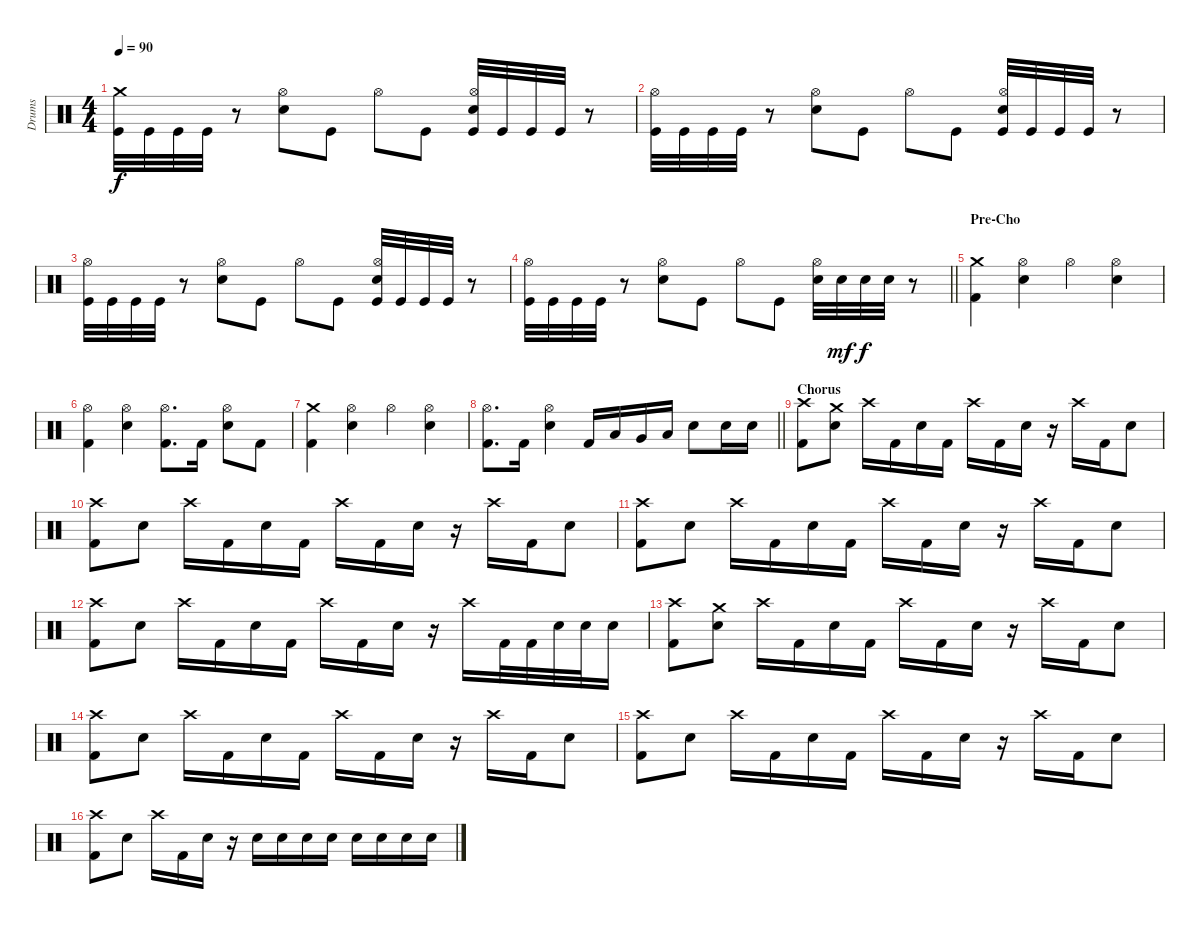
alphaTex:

\track ("Drums" "Drums") {instrument percussion}
\staff {score}
\articulation defaults
\ts (4 4)
\tempo 90
\clef neutral
\ks c
("Crash medium (hit)" "Kick (hit)").32{dy f} "Kick (hit)".32 "Kick (hit)".32 "Kick (hit)".32 r.8 ("Hi-Hat (open)" "Electric Snare (hit)").8 "Kick (hit)".8 "Hi-Hat (open)".8 "Kick (hit)".8 ("Hi-Hat (open)" "Electric Snare (hit)" "Kick (hit)").32 "Kick (hit)".32 "Kick (hit)".32 "Kick (hit)".32 r.8 |
("Hi-Hat (open)" "Kick (hit)").32 "Kick (hit)".32 "Kick (hit)".32 "Kick (hit)".32 r.8 ("Hi-Hat (open)" "Electric Snare (hit)").8 "Kick (hit)".8 "Hi-Hat (open)".8 "Kick (hit)".8 ("Hi-Hat (open)" "Electric Snare (hit)" "Kick (hit)").32 "Kick (hit)".32 "Kick (hit)".32 "Kick (hit)".32 r.8 |
("Hi-Hat (open)" "Kick (hit)").32 "Kick (hit)".32 "Kick (hit)".32 "Kick (hit)".32 r.8 ("Hi-Hat (open)" "Electric Snare (hit)").8 "Kick (hit)".8 "Hi-Hat (open)".8 "Kick (hit)".8 ("Hi-Hat (open)" "Electric Snare (hit)" "Kick (hit)").32 "Kick (hit)".32 "Kick (hit)".32 "Kick (hit)".32 r.8 |
\barLineRight lightlight
("Hi-Hat (open)" "Kick (hit)").32 "Kick (hit)".32 "Kick (hit)".32 "Kick (hit)".32 r.8 ("Hi-Hat (open)" "Electric Snare (hit)").8 "Kick (hit)".8 "Hi-Hat (open)".8 "Kick (hit)".8 ("Hi-Hat (open)" "Electric Snare (hit)").32 "Electric Snare (hit)".32{dy mf} "Electric Snare (hit)".32{dy f} "Electric Snare (hit)".32 r.8 |
\section ("" "Pre-Cho")
("Crash medium (hit)" "Kick (hit) 2").4 ("Hi-Hat (open)" "Electric Snare (hit)").4 "Hi-Hat (open)".4 ("Hi-Hat (open)" "Electric Snare (hit)").4 |
("Hi-Hat (open)" "Kick (hit) 2").4 ("Hi-Hat (open)" "Electric Snare (hit)").4 ("Hi-Hat (open)" "Kick (hit) 2").8{d} "Kick (hit) 2".16 ("Hi-Hat (open)" "Electric Snare (hit)").8 "Kick (hit) 2".8 |
("Crash medium (hit)" "Kick (hit) 2").4 ("Hi-Hat (open)" "Electric Snare (hit)").4 "Hi-Hat (open)".4 ("Hi-Hat (open)" "Electric Snare (hit)").4 |
\barLineRight lightlight
("Hi-Hat (open)" "Kick (hit) 2").8{d} "Kick (hit) 2".16 ("Hi-Hat (open)" "Electric Snare (hit)").4 "Kick (hit) 2".16 "Low Tom (hit)".16 "Very Low Tom (hit)".16 "Low Floor Tom (hit)".16 "Electric Snare (hit)".8 "Electric Snare (hit)".16 "Electric Snare (hit)".16 |
\section ("" "Chorus")
("Crash high (hit)" "Kick (hit) 2").8 ("Crash medium (hit)" "Electric Snare (hit)").8 "Crash high (hit)".16 "Kick (hit) 2".16 "Electric Snare (hit)".16 "Kick (hit) 2".16 "Crash high (hit)".16 "Kick (hit) 2".16 "Electric Snare (hit)".16 r.16 "Crash high (hit)".16 "Kick (hit) 2".16 "Electric Snare (hit)".8 |
("Crash high (hit)" "Kick (hit) 2").8 "Electric Snare (hit)".8 "Crash high (hit)".16 "Kick (hit) 2".16 "Electric Snare (hit)".16 "Kick (hit) 2".16 "Crash high (hit)".16 "Kick (hit) 2".16 "Electric Snare (hit)".16 r.16 "Crash high (hit)".16 "Kick (hit) 2".16 "Electric Snare (hit)".8 |
("Crash high (hit)" "Kick (hit) 2").8 "Electric Snare (hit)".8 "Crash high (hit)".16 "Kick (hit) 2".16 "Electric Snare (hit)".16 "Kick (hit) 2".16 "Crash high (hit)".16 "Kick (hit) 2".16 "Electric Snare (hit)".16 r.16 "Crash high (hit)".16 "Kick (hit) 2".16 "Electric Snare (hit)".8 |
("Crash high (hit)" "Kick (hit) 2").8 "Electric Snare (hit)".8 "Crash high (hit)".16 "Kick (hit) 2".16 "Electric Snare (hit)".16 "Kick (hit) 2".16 "Crash high (hit)".16 "Kick (hit) 2".16 "Electric Snare (hit)".16 r.16 "Crash high (hit)".16 "Kick (hit) 2".32 "Kick (hit) 2".32 "Electric Snare (hit)".32 "Electric Snare (hit)".32 "Electric Snare (hit)".16 |
("Crash high (hit)" "Kick (hit) 2").8 ("Crash medium (hit)" "Electric Snare (hit)").8 "Crash high (hit)".16 "Kick (hit) 2".16 "Electric Snare (hit)".16 "Kick (hit) 2".16 "Crash high (hit)".16 "Kick (hit) 2".16 "Electric Snare (hit)".16 r.16 "Crash high (hit)".16 "Kick (hit) 2".16 "Electric Snare (hit)".8 |
("Crash high (hit)" "Kick (hit) 2").8 "Electric Snare (hit)".8 "Crash high (hit)".16 "Kick (hit) 2".16 "Electric Snare (hit)".16 "Kick (hit) 2".16 "Crash high (hit)".16 "Kick (hit) 2".16 "Electric Snare (hit)".16 r.16 "Crash high (hit)".16 "Kick (hit) 2".16 "Electric Snare (hit)".8 |
("Crash high (hit)" "Kick (hit) 2").8 "Electric Snare (hit)".8 "Crash high (hit)".16 "Kick (hit) 2".16 "Electric Snare (hit)".16 "Kick (hit) 2".16 "Crash high (hit)".16 "Kick (hit) 2".16 "Electric Snare (hit)".16 r.16 "Crash high (hit)".16 "Kick (hit) 2".16 "Electric Snare (hit)".8 |
("Crash high (hit)" "Kick (hit) 2").8 "Electric Snare (hit)".8 "Crash high (hit)".16 "Kick (hit) 2".16 "Electric Snare (hit)".16 r.16 "Electric Snare (hit)".16 "Electric Snare (hit)".16 "Electric Snare (hit)".16 "Electric Snare (hit)".16 "Electric Snare (hit)".16 "Electric Snare (hit)".16 "Electric Snare (hit)".16 "Electric Snare (hit)".16
